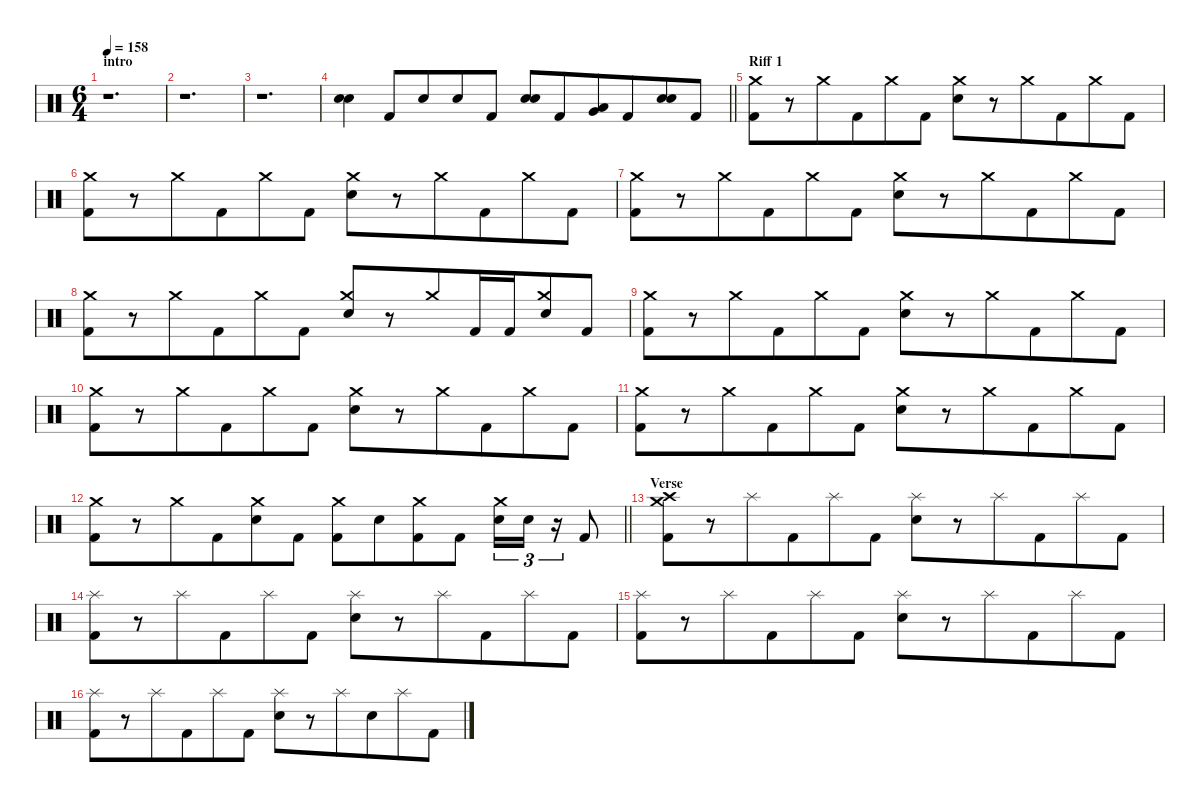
\defaultSystemsLayout 4
\hideDynamics
\bracketExtendMode nobrackets
\singleTrackTrackNamePolicy hidden
\multiTrackTrackNamePolicy hidden
\firstSystemTrackNameMode fullname
\firstSystemTrackNameOrientation horizontal
\otherSystemsTrackNameOrientation horizontal
\track ("Drums" "drm.") {defaultSystemsLayout 4 instrument percussion}
\staff {score}
\articulation defaults
\ts (6 4)
\beaming (8 6 6)
\section ("" "intro")
\tempo 158
\clef neutral
\ks c
r.1{d dy f beam Down} |
r.1{d beam Down} |
r.1{d beam Down} |
\barLineRight lightlight
("Snare (hit) 2" "Snare (hit) 2").4{beam Down} "Kick (hit) 2".8{beam Up} "Snare (hit) 2".8{beam Up} "Snare (hit) 2".8{beam Up} "Kick (hit) 2".8{beam Up} ("Snare (hit) 2" "Snare (hit) 2").8{beam Up} "Kick (hit) 2".8{beam Up} ("Low Tom (hit)" "Very Low Tom (hit)").8{beam Up} "Kick (hit) 2".8{beam Up} ("Snare (hit) 2" "Snare (hit) 2").8{beam Up} "Kick (hit) 2".8{beam Up} |
\section ("" "Riff 1")
("Crash medium (hit)" "Kick (hit) 2").8{beam Down} r.8{beam Down} "Crash medium (hit)".8{beam Down} "Kick (hit) 2".8{beam Down} "Crash medium (hit)".8{beam Down} "Kick (hit) 2".8{beam Down} ("Crash medium (hit)" "Snare (hit) 2").8{beam Down} r.8{beam Down} "Crash medium (hit)".8{beam Down} "Kick (hit) 2".8{beam Down} "Crash medium (hit)".8{beam Down} "Kick (hit) 2".8{beam Down} |
("Crash medium (hit)" "Kick (hit) 2").8{beam Down} r.8{beam Down} "Crash medium (hit)".8{beam Down} "Kick (hit) 2".8{beam Down} "Crash medium (hit)".8{beam Down} "Kick (hit) 2".8{beam Down} ("Crash medium (hit)" "Snare (hit) 2").8{beam Down} r.8{beam Down} "Crash medium (hit)".8{beam Down} "Kick (hit) 2".8{beam Down} "Crash medium (hit)".8{beam Down} "Kick (hit) 2".8{beam Down} |
("Crash medium (hit)" "Kick (hit) 2").8{beam Down} r.8{beam Down} "Crash medium (hit)".8{beam Down} "Kick (hit) 2".8{beam Down} "Crash medium (hit)".8{beam Down} "Kick (hit) 2".8{beam Down} ("Crash medium (hit)" "Snare (hit) 2").8{beam Down} r.8{beam Down} "Crash medium (hit)".8{beam Down} "Kick (hit) 2".8{beam Down} "Crash medium (hit)".8{beam Down} "Kick (hit) 2".8{beam Down} |
("Crash medium (hit)" "Kick (hit) 2").8{beam Down} r.8{beam Down} "Crash medium (hit)".8{beam Down} "Kick (hit) 2".8{beam Down} "Crash medium (hit)".8{beam Down} "Kick (hit) 2".8{beam Down} ("Crash medium (hit)" "Snare (hit) 2").8{beam Up} r.8{beam Up} "Crash medium (hit)".8{beam Up} "Kick (hit) 2".16{beam Up} "Kick (hit) 2".16{beam Up} ("Crash medium (hit)" "Snare (hit) 2").8{beam Up} "Kick (hit) 2".8{beam Up} |
("Crash medium (hit)" "Kick (hit) 2").8{beam Down} r.8{beam Down} "Crash medium (hit)".8{beam Down} "Kick (hit) 2".8{beam Down} "Crash medium (hit)".8{beam Down} "Kick (hit) 2".8{beam Down} ("Crash medium (hit)" "Snare (hit) 2").8{beam Down} r.8{beam Down} "Crash medium (hit)".8{beam Down} "Kick (hit) 2".8{beam Down} "Crash medium (hit)".8{beam Down} "Kick (hit) 2".8{beam Down} |
("Crash medium (hit)" "Kick (hit) 2").8{beam Down} r.8{beam Down} "Crash medium (hit)".8{beam Down} "Kick (hit) 2".8{beam Down} "Crash medium (hit)".8{beam Down} "Kick (hit) 2".8{beam Down} ("Crash medium (hit)" "Snare (hit) 2").8{beam Down} r.8{beam Down} "Crash medium (hit)".8{beam Down} "Kick (hit) 2".8{beam Down} "Crash medium (hit)".8{beam Down} "Kick (hit) 2".8{beam Down} |
("Crash medium (hit)" "Kick (hit) 2").8{beam Down} r.8{beam Down} "Crash medium (hit)".8{beam Down} "Kick (hit) 2".8{beam Down} "Crash medium (hit)".8{beam Down} "Kick (hit) 2".8{beam Down} ("Crash medium (hit)" "Snare (hit) 2").8{beam Down} r.8{beam Down} "Crash medium (hit)".8{beam Down} "Kick (hit) 2".8{beam Down} "Crash medium (hit)".8{beam Down} "Kick (hit) 2".8{beam Down} |
\barLineRight lightlight
("Crash medium (hit)" "Kick (hit) 2").8{beam Down} r.8{beam Down} "Crash medium (hit)".8{beam Down} "Kick (hit) 2".8{beam Down} ("Crash medium (hit)" "Snare (hit) 2").8{beam Down} "Kick (hit) 2".8{beam Down} ("Crash medium (hit)" "Kick (hit) 2").8{beam Down} "Snare (hit) 2".8{beam Down} ("Crash medium (hit)" "Kick (hit) 2").8{beam Down} "Kick (hit) 2".8{beam Down} ("Crash medium (hit)" "Snare (hit) 2").16{tu (3 2) beam Down} "Snare (hit) 2".16{tu (3 2) beam Down} r.16{tu (3 2) beam Down} "Kick (hit) 2".8{beam Up} |
\section ("" "Verse")
("Crash high (hit)" "Crash medium (hit)" "Kick (hit) 2").8{beam Down} r.8{beam Down} "Splash (hit)".8{beam Down} "Kick (hit) 2".8{beam Down} "Splash (hit)".8{beam Down} "Kick (hit) 2".8{beam Down} ("Splash (hit)" "Snare (hit) 2").8{beam Down} r.8{beam Down} "Splash (hit)".8{beam Down} "Kick (hit) 2".8{beam Down} "Splash (hit)".8{beam Down} "Kick (hit) 2".8{beam Down} |
("Splash (hit)" "Kick (hit) 2").8{beam Down} r.8{beam Down} "Splash (hit)".8{beam Down} "Kick (hit) 2".8{beam Down} "Splash (hit)".8{beam Down} "Kick (hit) 2".8{beam Down} ("Splash (hit)" "Snare (hit) 2").8{beam Down} r.8{beam Down} "Splash (hit)".8{beam Down} "Kick (hit) 2".8{beam Down} "Splash (hit)".8{beam Down} "Kick (hit) 2".8{beam Down} |
("Splash (hit)" "Kick (hit) 2").8{beam Down} r.8{beam Down} "Splash (hit)".8{beam Down} "Kick (hit) 2".8{beam Down} "Splash (hit)".8{beam Down} "Kick (hit) 2".8{beam Down} ("Splash (hit)" "Snare (hit) 2").8{beam Down} r.8{beam Down} "Splash (hit)".8{beam Down} "Kick (hit) 2".8{beam Down} "Splash (hit)".8{beam Down} "Kick (hit) 2".8{beam Down} |
("Splash (hit)" "Kick (hit) 2").8{beam Down} r.8{beam Down} "Splash (hit)".8{beam Down} "Kick (hit) 2".8{beam Down} "Splash (hit)".8{beam Down} "Kick (hit) 2".8{beam Down} ("Splash (hit)" "Snare (hit) 2").8{beam Down} r.8{beam Down} "Splash (hit)".8{beam Down} "Snare (hit) 2".8{beam Down} "Splash (hit)".8{beam Down} "Kick (hit) 2".8{beam Down}
